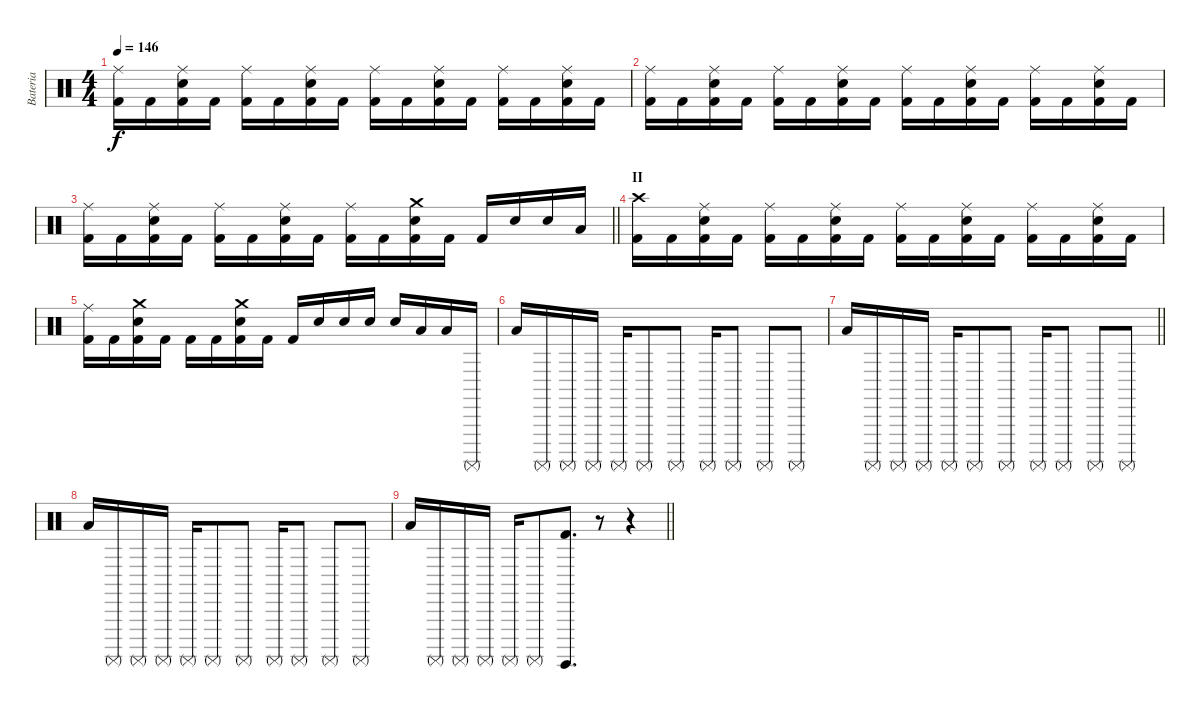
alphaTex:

\track ("Bateria" "Bateria") {instrument percussion}
\staff {score}
\articulation defaults
\ts (4 4)
\tempo 146
\clef neutral
\ks c
("Kick (hit) 2" "Ride (middle)").16{dy f} "Kick (hit) 2".16 ("Kick (hit) 2" "Electric Snare (hit)" "Ride (middle)").16 "Kick (hit) 2".16 ("Kick (hit) 2" "Ride (middle)").16 "Kick (hit) 2".16 ("Kick (hit) 2" "Electric Snare (hit)" "Ride (middle)").16 "Kick (hit) 2".16 ("Kick (hit) 2" "Ride (middle)").16 "Kick (hit) 2".16 ("Kick (hit) 2" "Electric Snare (hit)" "Ride (middle)").16 "Kick (hit) 2".16 ("Kick (hit) 2" "Ride (middle)").16 "Kick (hit) 2".16 ("Kick (hit) 2" "Electric Snare (hit)" "Ride (middle)").16 "Kick (hit) 2".16 |
("Kick (hit) 2" "Ride (middle)").16 "Kick (hit) 2".16 ("Kick (hit) 2" "Electric Snare (hit)" "Ride (middle)").16 "Kick (hit) 2".16 ("Kick (hit) 2" "Ride (middle)").16 "Kick (hit) 2".16 ("Kick (hit) 2" "Electric Snare (hit)" "Ride (middle)").16 "Kick (hit) 2".16 ("Kick (hit) 2" "Ride (middle)").16 "Kick (hit) 2".16 ("Kick (hit) 2" "Electric Snare (hit)" "Ride (middle)").16 "Kick (hit) 2".16 ("Kick (hit) 2" "Ride (middle)").16 "Kick (hit) 2".16 ("Kick (hit) 2" "Electric Snare (hit)" "Ride (middle)").16 "Kick (hit) 2".16 |
\barLineRight lightlight
("Kick (hit) 2" "Ride (middle)").16 "Kick (hit) 2".16 ("Kick (hit) 2" "Electric Snare (hit)" "Ride (middle)").16 "Kick (hit) 2".16 ("Kick (hit) 2" "Ride (middle)").16 "Kick (hit) 2".16 ("Kick (hit) 2" "Electric Snare (hit)" "Ride (middle)").16 "Kick (hit) 2".16 ("Kick (hit) 2" "Ride (middle)").16 "Kick (hit) 2".16 ("Kick (hit) 2" "Electric Snare (hit)" "Crash medium (hit)").16 "Kick (hit) 2".16 "Kick (hit) 2".16 "Electric Snare (hit)".16 "Electric Snare (hit)".16 "Low Tom (hit)".16 |
\section ("" "II")
("Kick (hit) 2" "Crash high (hit)").16 "Kick (hit) 2".16 ("Kick (hit) 2" "Electric Snare (hit)" "Ride (middle)").16 "Kick (hit) 2".16 ("Kick (hit) 2" "Ride (middle)").16 "Kick (hit) 2".16 ("Kick (hit) 2" "Electric Snare (hit)" "Ride (middle)").16 "Kick (hit) 2".16 ("Kick (hit) 2" "Ride (middle)").16 "Kick (hit) 2".16 ("Kick (hit) 2" "Electric Snare (hit)" "Ride (middle)").16 "Kick (hit) 2".16 ("Kick (hit) 2" "Ride (middle)").16 "Kick (hit) 2".16 ("Kick (hit) 2" "Electric Snare (hit)" "Ride (middle)").16 "Kick (hit) 2".16 |
("Kick (hit) 2" "Ride (middle)").16 "Kick (hit) 2".16 ("Kick (hit) 2" "Electric Snare (hit)" "Crash medium (hit)").16 "Kick (hit) 2".16 "Kick (hit) 2".16 "Kick (hit) 2".16 ("Kick (hit) 2" "Electric Snare (hit)" "Crash medium (hit)").16 "Kick (hit) 2".16 "Kick (hit) 2".16 "Electric Snare (hit)".16 "Electric Snare (hit)".16 "Electric Snare (hit)".16 "Electric Snare (hit)".16 "Low Tom (hit)".16 "Low Tom (hit)".16 "Surdo (mute)".16 |
"Low Tom (hit)".16 "Surdo (mute)".16 "Surdo (mute)".16 "Surdo (mute)".16 "Surdo (mute)".16 "Surdo (mute)".8 "Surdo (mute)".8 "Surdo (mute)".16 "Surdo (mute)".8 "Surdo (mute)".8 "Surdo (mute)".8 |
\barLineRight lightlight "Low Tom (hit)".16 "Surdo (mute)".16 "Surdo (mute)".16 "Surdo (mute)".16 "Surdo (mute)".16 "Surdo (mute)".8 "Surdo (mute)".8 "Surdo (mute)".16 "Surdo (mute)".8 "Surdo (mute)".8 "Surdo (mute)".8
|
"Low Tom (hit)".16 "Surdo (mute)".16 "Surdo (mute)".16 "Surdo (mute)".16 "Surdo (mute)".16 "Surdo (mute)".8 "Surdo (mute)".8 "Surdo (mute)".16 "Surdo (mute)".8 "Surdo (mute)".8 "Surdo (mute)".8 |
\barLineRight lightlight "Low Tom (hit)".16 "Surdo (mute)".16 "Surdo (mute)".16 "Surdo (mute)".16 "Surdo (mute)".16 "Surdo (mute)".8
("Kick (hit) 2" "Surdo (hit)").8{d} r.8 r.4
